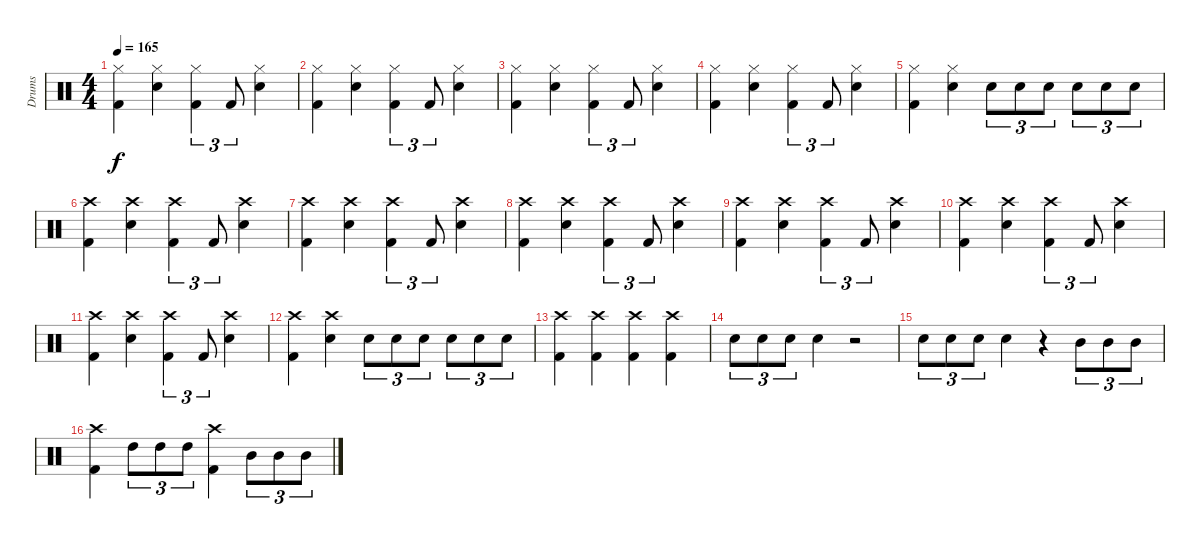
\track ("Drums" "Drums") {instrument percussion}
\staff {score}
\articulation defaults
\ts (4 4)
\tempo 165
\clef neutral
\ks c
("Hi-Hat (closed)" "Kick (hit) 2").4{dy f} ("Hi-Hat (closed)" "Electric Snare (hit)").4 ("Hi-Hat (closed)" "Kick (hit) 2").4{tu (3 2)} "Kick (hit) 2".8{tu (3 2)} ("Hi-Hat (closed)" "Electric Snare (hit)").4 |
("Hi-Hat (closed)" "Kick (hit) 2").4 ("Hi-Hat (closed)" "Electric Snare (hit)").4 ("Hi-Hat (closed)" "Kick (hit) 2").4{tu (3 2)} "Kick (hit) 2".8{tu (3 2)} ("Hi-Hat (closed)" "Electric Snare (hit)").4 |
("Hi-Hat (closed)" "Kick (hit) 2").4 ("Hi-Hat (closed)" "Electric Snare (hit)").4 ("Hi-Hat (closed)" "Kick (hit) 2").4{tu (3 2)} "Kick (hit) 2".8{tu (3 2)} ("Hi-Hat (closed)" "Electric Snare (hit)").4 |
("Hi-Hat (closed)" "Kick (hit) 2").4 ("Hi-Hat (closed)" "Electric Snare (hit)").4 ("Hi-Hat (closed)" "Kick (hit) 2").4{tu (3 2)} "Kick (hit) 2".8{tu (3 2)} ("Hi-Hat (closed)" "Electric Snare (hit)").4 |
("Hi-Hat (closed)" "Kick (hit) 2").4 ("Hi-Hat (closed)" "Electric Snare (hit)").4 "Electric Snare (hit)".8{tu (3 2)} "Electric Snare (hit)".8{tu (3 2)} "Electric Snare (hit)".8{tu (3 2)} "Electric Snare (hit)".8{tu (3 2)} "Electric Snare (hit)".8{tu (3 2)} "Electric Snare (hit)".8{tu (3 2)} |
("Crash high (hit)" "Kick (hit) 2").4 ("Crash high (hit)" "Electric Snare (hit)").4 ("Crash high (hit)" "Kick (hit) 2").4{tu (3 2)} "Kick (hit) 2".8{tu (3 2)} ("Crash high (hit)" "Electric Snare (hit)").4 |
("Crash high (hit)" "Kick (hit) 2").4 ("Crash high (hit)" "Electric Snare (hit)").4 ("Crash high (hit)" "Kick (hit) 2").4{tu (3 2)} "Kick (hit) 2".8{tu (3 2)} ("Crash high (hit)" "Electric Snare (hit)").4 |
("Crash high (hit)" "Kick (hit) 2").4 ("Crash high (hit)" "Electric Snare (hit)").4 ("Crash high (hit)" "Kick (hit) 2").4{tu (3 2)} "Kick (hit) 2".8{tu (3 2)} ("Crash high (hit)" "Electric Snare (hit)").4 |
("Crash high (hit)" "Kick (hit) 2").4 ("Crash high (hit)" "Electric Snare (hit)").4 ("Crash high (hit)" "Kick (hit) 2").4{tu (3 2)} "Kick (hit) 2".8{tu (3 2)} ("Crash high (hit)" "Electric Snare (hit)").4 |
("Crash high (hit)" "Kick (hit) 2").4 ("Crash high (hit)" "Electric Snare (hit)").4 ("Crash high (hit)" "Kick (hit) 2").4{tu (3 2)} "Kick (hit) 2".8{tu (3 2)} ("Crash high (hit)" "Electric Snare (hit)").4 |
("Crash high (hit)" "Kick (hit) 2").4 ("Crash high (hit)" "Electric Snare (hit)").4 ("Crash high (hit)" "Kick (hit) 2").4{tu (3 2)} "Kick (hit) 2".8{tu (3 2)} ("Crash high (hit)" "Electric Snare (hit)").4 |
("Crash high (hit)" "Kick (hit) 2").4 ("Crash high (hit)" "Electric Snare (hit)").4 "Electric Snare (hit)".8{tu (3 2)} "Electric Snare (hit)".8{tu (3 2)} "Electric Snare (hit)".8{tu (3 2)} "Electric Snare (hit)".8{tu (3 2)} "Electric Snare (hit)".8{tu (3 2)} "Electric Snare (hit)".8{tu (3 2)} |
("Kick (hit) 2" "Crash high (hit)").4 ("Kick (hit) 2" "Crash high (hit)").4 ("Kick (hit) 2" "Crash high (hit)").4 ("Kick (hit) 2" "Crash high (hit)").4 |
"Electric Snare (hit)".8{tu (3 2)} "Electric Snare (hit)".8{tu (3 2)} "Electric Snare (hit)".8{tu (3 2)} "Electric Snare (hit)".4 r.2 |
"Electric Snare (hit)".8{tu (3 2)} "Electric Snare (hit)".8{tu (3 2)} "Electric Snare (hit)".8{tu (3 2)} "Electric Snare (hit)".4 r.4 "Mid Tom (hit)".8{tu (3 2)} "Mid Tom (hit)".8{tu (3 2)} "Mid Tom (hit)".8{tu (3 2)} |
("Crash high (hit)" "Kick (hit) 2").4 "High Tom (hit)".8{tu (3 2)} "High Tom (hit)".8{tu (3 2)} "High Tom (hit)".8{tu (3 2)} ("Crash high (hit)" "Kick (hit) 2").4 "Mid Tom (hit)".8{tu (3 2)} "Mid Tom (hit)".8{tu (3 2)} "Mid Tom (hit)".8{tu (3 2)}
